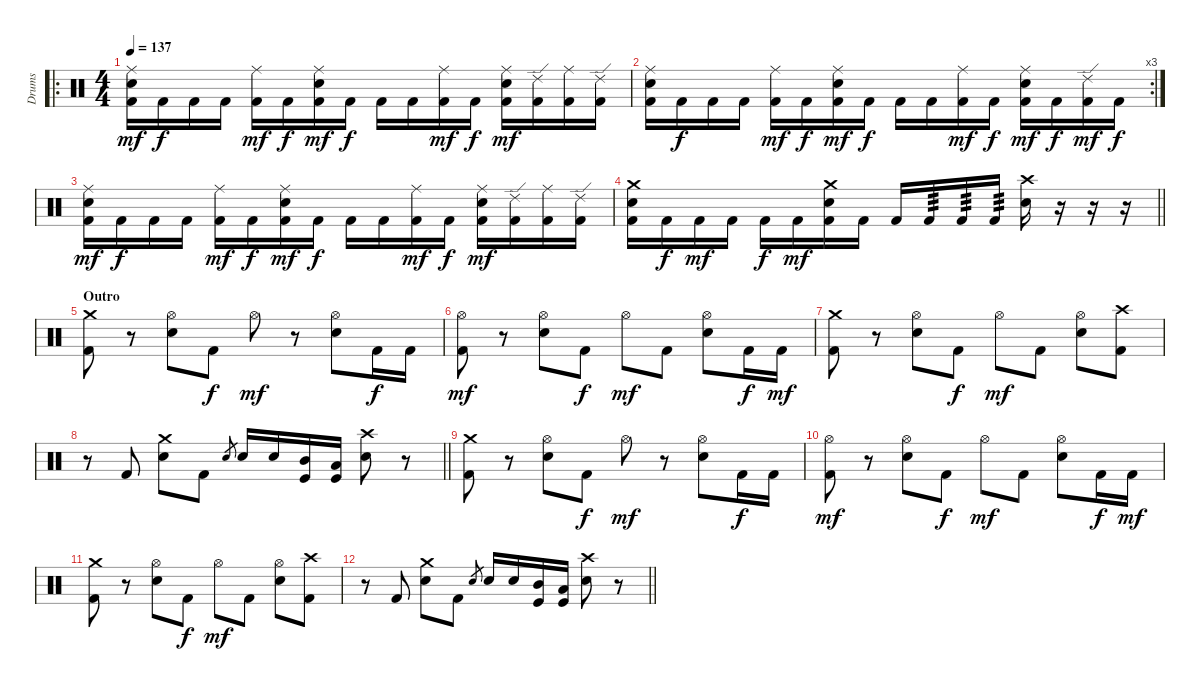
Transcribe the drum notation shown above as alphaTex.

\track ("Drums" "Drums") {instrument percussion}
\staff {score}
\articulation defaults
\ro
\ts (4 4)
\tempo 137
\clef neutral
\ks c
("Ride (middle)" "Electric Snare (hit)" "Kick (hit) 2").16{dy mf} "Kick (hit) 2".16{dy f} "Kick (hit) 2".16 "Kick (hit) 2".16 ("Ride (middle)" "Kick (hit) 2").16{dy mf} "Kick (hit) 2".16{dy f} ("Ride (middle)" "Electric Snare (hit)" "Kick (hit) 2").16{dy mf} "Kick (hit) 2".16{dy f} "Kick (hit) 2".16 "Kick (hit) 2".16 ("Ride (middle)" "Kick (hit) 2").16{dy mf} "Kick (hit) 2".16{dy f} ("Ride (middle)" "Electric Snare (hit)" "Kick (hit) 2").16{dy mf} ("Ride (edge) 2" "Kick (hit) 2").16 ("Ride (middle)" "Kick (hit) 2").16 ("Ride (edge) 2" "Kick (hit) 2").16 |
\rc 3
("Ride (middle)" "Electric Snare (hit)" "Kick (hit) 2").16 "Kick (hit) 2".16{dy f} "Kick (hit) 2".16 "Kick (hit) 2".16 ("Ride (middle)" "Kick (hit) 2").16{dy mf} "Kick (hit) 2".16{dy f} ("Ride (middle)" "Electric Snare (hit)" "Kick (hit) 2").16{dy mf} "Kick (hit) 2".16{dy f} "Kick (hit) 2".16 "Kick (hit) 2".16 ("Ride (middle)" "Kick (hit) 2").16{dy mf} "Kick (hit) 2".16{dy f} ("Ride (middle)" "Electric Snare (hit)" "Kick (hit) 2").16{dy mf} "Kick (hit) 2".16{dy f} ("Ride (edge) 2" "Kick (hit) 2").16{dy mf} "Kick (hit) 2".16{dy f} |
("Ride (middle)" "Electric Snare (hit)" "Kick (hit) 2").16{dy mf} "Kick (hit) 2".16{dy f} "Kick (hit) 2".16 "Kick (hit) 2".16 ("Ride (middle)" "Kick (hit) 2").16{dy mf} "Kick (hit) 2".16{dy f} ("Ride (middle)" "Electric Snare (hit)" "Kick (hit) 2").16{dy mf} "Kick (hit) 2".16{dy f} "Kick (hit) 2".16 "Kick (hit) 2".16 ("Ride (middle)" "Kick (hit) 2").16{dy mf} "Kick (hit) 2".16{dy f} ("Ride (middle)" "Electric Snare (hit)" "Kick (hit) 2").16{dy mf} ("Ride (edge) 2" "Kick (hit) 2").16 ("Ride (middle)" "Kick (hit) 2").16 ("Ride (edge) 2" "Kick (hit) 2").16 |
\barLineRight lightlight
("Crash medium (hit)" "Electric Snare (hit)" "Kick (hit) 2").16 "Kick (hit) 2".16{dy f} "Kick (hit) 2".16{dy mf} "Kick (hit) 2".16 "Kick (hit) 2".16{dy f} "Kick (hit) 2".16{dy mf} ("Crash medium (hit)" "Electric Snare (hit)" "Kick (hit) 2").16 "Kick (hit) 2".16 "Kick (hit) 2".16 "Kick (hit) 2".16{tp 3} "Kick (hit) 2".16{tp 3} "Kick (hit) 2".16{tp 3} ("Crash high (hit)" "Electric Snare (hit)").16 r.16 r.16 r.16 |
\section ("" "Outro")
("Crash medium (hit)" "Kick (hit) 2").8 r.8 ("Hi-Hat (open)" "Electric Snare (hit)").8 "Kick (hit) 2".8{dy f} "Hi-Hat (open)".8{dy mf} r.8 ("Hi-Hat (open)" "Electric Snare (hit)").8 "Kick (hit) 2".16{dy f} "Kick (hit) 2".16 |
("Hi-Hat (open)" "Kick (hit) 2").8{dy mf} r.8 ("Hi-Hat (open)" "Electric Snare (hit)").8 "Kick (hit) 2".8{dy f} "Hi-Hat (open)".8{dy mf} "Kick (hit) 2".8 ("Hi-Hat (open)" "Electric Snare (hit)").8 "Kick (hit) 2".16{dy f} "Kick (hit) 2".16{dy mf} |
("Crash medium (hit)" "Kick (hit) 2").8 r.8 ("Hi-Hat (open)" "Electric Snare (hit)").8 "Kick (hit) 2".8{dy f} "Hi-Hat (open)".8{dy mf} "Kick (hit) 2".8 ("Hi-Hat (open)" "Electric Snare (hit)").8 ("Crash high (hit)" "Kick (hit) 2").8 |
\barLineRight lightlight
r.8 "Kick (hit) 2".8 ("Crash medium (hit)" "Electric Snare (hit)").8 "Kick (hit) 2".8 "Electric Snare (hit)".8{gr} "Electric Snare (hit)".16 "Electric Snare (hit)".16 ("Mid Tom (hit)" "Kick (hit)").16 ("Low Tom (hit)" "Kick (hit)").16 ("Crash high (hit)" "Electric Snare (hit)").8 r.8 |
("Crash medium (hit)" "Kick (hit) 2").8 r.8 ("Hi-Hat (open)" "Electric Snare (hit)").8 "Kick (hit) 2".8{dy f} "Hi-Hat (open)".8{dy mf} r.8 ("Hi-Hat (open)" "Electric Snare (hit)").8 "Kick (hit) 2".16{dy f} "Kick (hit) 2".16 |
("Hi-Hat (open)" "Kick (hit) 2").8{dy mf} r.8 ("Hi-Hat (open)" "Electric Snare (hit)").8 "Kick (hit) 2".8{dy f} "Hi-Hat (open)".8{dy mf} "Kick (hit) 2".8 ("Hi-Hat (open)" "Electric Snare (hit)").8 "Kick (hit) 2".16{dy f} "Kick (hit) 2".16{dy mf} |
("Crash medium (hit)" "Kick (hit) 2").8 r.8 ("Hi-Hat (open)" "Electric Snare (hit)").8 "Kick (hit) 2".8{dy f} "Hi-Hat (open)".8{dy mf} "Kick (hit) 2".8 ("Hi-Hat (open)" "Electric Snare (hit)").8 ("Crash high (hit)" "Kick (hit) 2").8 |
\barLineRight lightlight
r.8 "Kick (hit) 2".8 ("Crash medium (hit)" "Electric Snare (hit)").8 "Kick (hit) 2".8 "Electric Snare (hit)".8{gr} "Electric Snare (hit)".16 "Electric Snare (hit)".16 ("Mid Tom (hit)" "Kick (hit)").16 ("Low Tom (hit)" "Kick (hit)").16 ("Crash high (hit)" "Electric Snare (hit)").8 r.8
